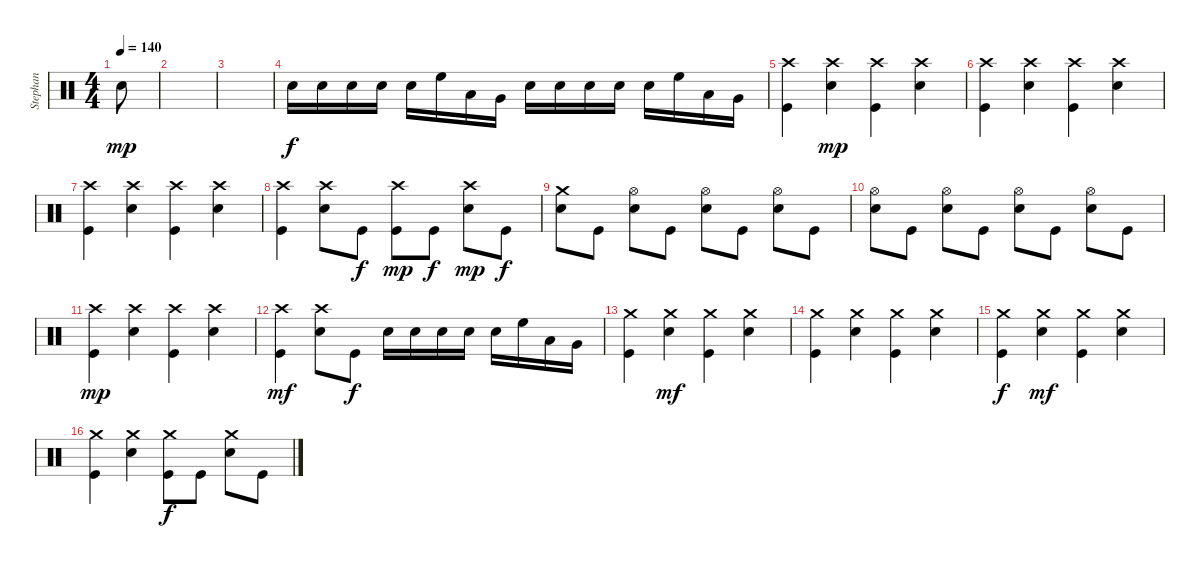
\track ("Stephan" "Stephan") {instrument percussion}
\staff {score}
\articulation defaults
\ts (4 4)
\tempo 140
\clef neutral
\ks c "Snare (hit) 2".8{dy mp}
|
|
|
"Snare (hit) 2".16{dy f} "Snare (hit) 2".16 "Snare (hit) 2".16 "Snare (hit) 2".16 "Snare (hit) 2".16 "High Floor Tom (hit)".16 "Low Tom (hit)".16 "Very Low Tom (hit)".16 "Snare (hit) 2".16 "Snare (hit) 2".16 "Snare (hit) 2".16 "Snare (hit) 2".16 "Snare (hit) 2".16 "High Floor Tom (hit)".16 "Low Tom (hit)".16 "Very Low Tom (hit)".16 |
("Kick (hit)" "Crash high (hit)").4 ("Snare (hit) 2" "Crash high (hit)").4{dy mp} ("Kick (hit)" "Crash high (hit)").4 ("Snare (hit) 2" "Crash high (hit)").4 |
("Kick (hit)" "Crash high (hit)").4 ("Snare (hit) 2" "Crash high (hit)").4 ("Kick (hit)" "Crash high (hit)").4 ("Snare (hit) 2" "Crash high (hit)").4 |
("Kick (hit)" "Crash high (hit)").4 ("Snare (hit) 2" "Crash high (hit)").4 ("Kick (hit)" "Crash high (hit)").4 ("Snare (hit) 2" "Crash high (hit)").4 |
("Kick (hit)" "Crash high (hit)").4 ("Snare (hit) 2" "Crash high (hit)").8 "Kick (hit)".8{dy f} ("Kick (hit)" "Crash high (hit)").8{dy mp} "Kick (hit)".8{dy f} ("Snare (hit) 2" "Crash high (hit)").8{dy mp} "Kick (hit)".8{dy f} |
("Snare (hit) 2" "Crash medium (hit)").8 "Kick (hit)".8 ("Snare (hit) 2" "Hi-Hat (open)").8 "Kick (hit)".8 ("Snare (hit) 2" "Hi-Hat (open)").8 "Kick (hit)".8 ("Snare (hit) 2" "Hi-Hat (open)").8 "Kick (hit)".8 |
("Snare (hit) 2" "Hi-Hat (open)").8 "Kick (hit)".8 ("Snare (hit) 2" "Hi-Hat (open)").8 "Kick (hit)".8 ("Snare (hit) 2" "Hi-Hat (open)").8 "Kick (hit)".8 ("Snare (hit) 2" "Hi-Hat (open)").8 "Kick (hit)".8 |
("Kick (hit)" "Crash high (hit)").4{dy mp} ("Snare (hit) 2" "Crash high (hit)").4 ("Kick (hit)" "Crash high (hit)").4 ("Snare (hit) 2" "Crash high (hit)").4 |
("Kick (hit)" "Crash high (hit)").4{dy mf} ("Snare (hit) 2" "Crash high (hit)").8 "Kick (hit)".8{dy f} "Snare (hit) 2".16 "Snare (hit) 2".16 "Snare (hit) 2".16 "Snare (hit) 2".16 "Snare (hit) 2".16 "High Floor Tom (hit)".16 "Low Tom (hit)".16 "Very Low Tom (hit)".16 |
("Kick (hit)" "Crash medium (hit)").4 ("Snare (hit) 2" "Crash medium (hit)").4{dy mf} ("Kick (hit)" "Crash medium (hit)").4 ("Snare (hit) 2" "Crash medium (hit)").4 |
("Kick (hit)" "Crash medium (hit)").4 ("Snare (hit) 2" "Crash medium (hit)").4 ("Kick (hit)" "Crash medium (hit)").4 ("Snare (hit) 2" "Crash medium (hit)").4 |
("Kick (hit)" "Crash medium (hit)").4{dy f} ("Snare (hit) 2" "Crash medium (hit)").4{dy mf} ("Kick (hit)" "Crash medium (hit)").4 ("Snare (hit) 2" "Crash medium (hit)").4 |
("Kick (hit)" "Crash medium (hit)").4 ("Snare (hit) 2" "Crash medium (hit)").4 ("Kick (hit)" "Crash medium (hit)").8{dy f} "Kick (hit)".8 ("Snare (hit) 2" "Crash medium (hit)").8 "Kick (hit)".8
